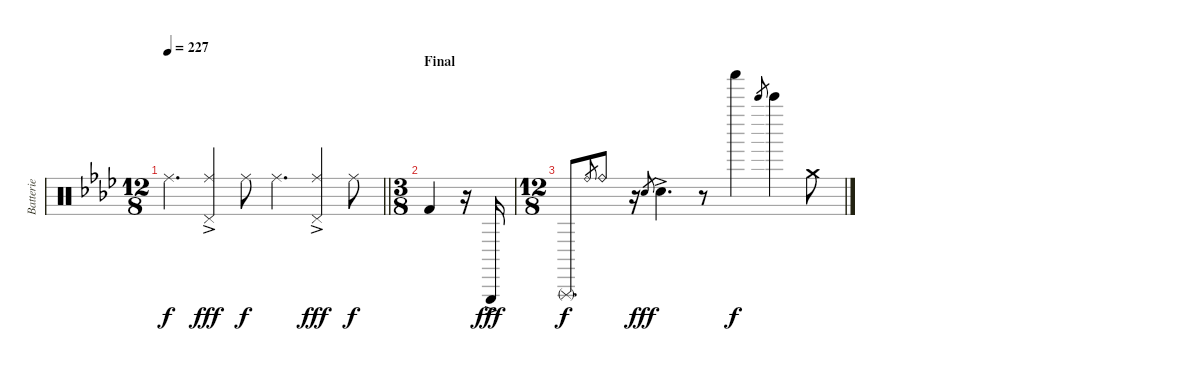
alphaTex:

\track ("Batterie" "Batterie") {instrument percussion}
\staff {score}
\articulation defaults
\ts (12 8)
\tempo 227
\clef neutral
\barLineRight lightlight
\ks fminor "Ride (middle)".4{d dy f}
("Ride (middle)" "Pedal Hi-Hat (hit)"{ac}).4{dy fff} "Ride (middle)".8{dy f} "Ride (middle)".4{d} ("Ride (middle)" "Pedal Hi-Hat (hit)"{ac}).4{dy fff} "Ride (middle)".8{dy f} |
\ts (3 8)
\section ("" "Final")
"Kick (hit) 2".4{volume 12 balance 8} r.16 "Triangle (hit)"{ac}.16{dy fff} |
\ts (12 8)
"Triangle (rnute)".8{d dy f} "Ride (bell)".8{gr} "Ride (bell)".8 r.16 "Snare (hit) 2".8{gr dy fff} "Snare (hit) 2"{ac}.4{d} r.8 "Shaker (hit)".4{dy f} "Bell Tree (hit)".8{gr} "Bell Tree (hit)".4 "Crash medium (hit)".8
